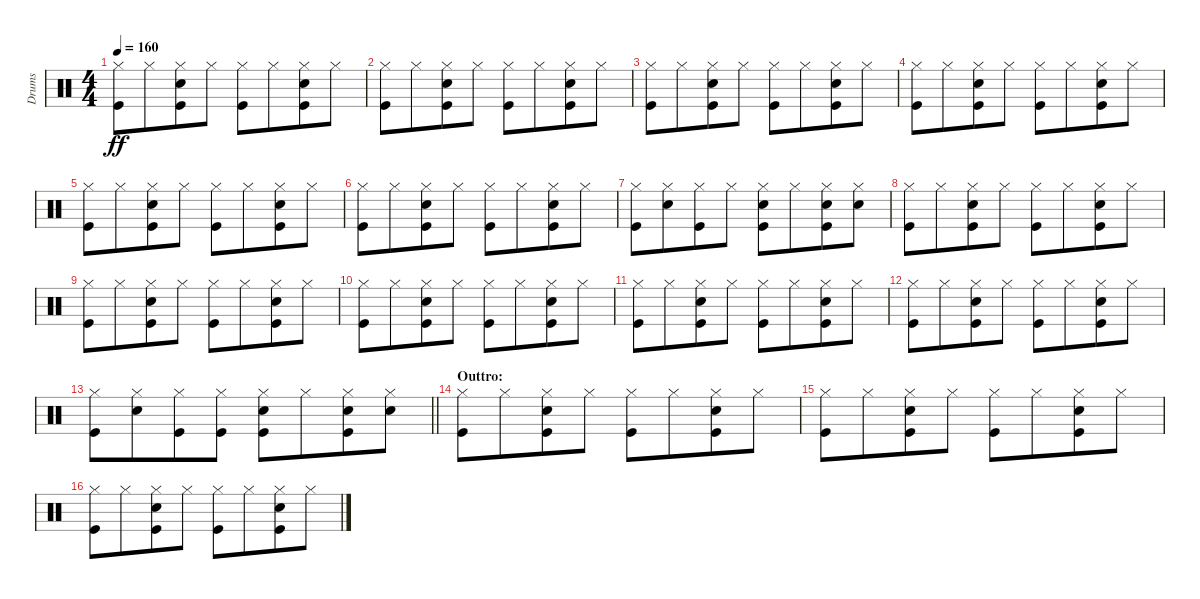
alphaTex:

\track ("Drums" "Drums") {instrument percussion}
\staff {score}
\articulation defaults
\ts (4 4)
\tempo 160
\clef neutral
\ks c
("Hi-Hat (closed)" "Kick (hit)").8{dy ff} "Hi-Hat (closed)".8{beam merge} ("Hi-Hat (closed)" "Snare (hit) 2" "Kick (hit)").8 "Hi-Hat (closed)".8 ("Hi-Hat (closed)" "Kick (hit)").8 "Hi-Hat (closed)".8{beam merge} ("Hi-Hat (closed)" "Snare (hit) 2" "Kick (hit)").8 "Hi-Hat (closed)".8 |
("Hi-Hat (closed)" "Kick (hit)").8 "Hi-Hat (closed)".8{beam merge} ("Hi-Hat (closed)" "Snare (hit) 2" "Kick (hit)").8 "Hi-Hat (closed)".8 ("Hi-Hat (closed)" "Kick (hit)").8 "Hi-Hat (closed)".8{beam merge} ("Hi-Hat (closed)" "Snare (hit) 2" "Kick (hit)").8 "Hi-Hat (closed)".8 |
("Hi-Hat (closed)" "Kick (hit)").8 "Hi-Hat (closed)".8{beam merge} ("Hi-Hat (closed)" "Snare (hit) 2" "Kick (hit)").8 "Hi-Hat (closed)".8 ("Hi-Hat (closed)" "Kick (hit)").8 "Hi-Hat (closed)".8{beam merge} ("Hi-Hat (closed)" "Snare (hit) 2" "Kick (hit)").8 "Hi-Hat (closed)".8 |
("Hi-Hat (closed)" "Kick (hit)").8 "Hi-Hat (closed)".8{beam merge} ("Hi-Hat (closed)" "Snare (hit) 2" "Kick (hit)").8 "Hi-Hat (closed)".8 ("Hi-Hat (closed)" "Kick (hit)").8 "Hi-Hat (closed)".8{beam merge} ("Hi-Hat (closed)" "Snare (hit) 2" "Kick (hit)").8 "Hi-Hat (closed)".8 |
("Hi-Hat (closed)" "Kick (hit)").8 "Hi-Hat (closed)".8{beam merge} ("Hi-Hat (closed)" "Snare (hit) 2" "Kick (hit)").8 "Hi-Hat (closed)".8 ("Hi-Hat (closed)" "Kick (hit)").8 "Hi-Hat (closed)".8{beam merge} ("Hi-Hat (closed)" "Snare (hit) 2" "Kick (hit)").8 "Hi-Hat (closed)".8 |
("Hi-Hat (closed)" "Kick (hit)").8 "Hi-Hat (closed)".8{beam merge} ("Hi-Hat (closed)" "Snare (hit) 2" "Kick (hit)").8 "Hi-Hat (closed)".8 ("Hi-Hat (closed)" "Kick (hit)").8 "Hi-Hat (closed)".8{beam merge} ("Hi-Hat (closed)" "Snare (hit) 2" "Kick (hit)").8 "Hi-Hat (closed)".8 |
("Hi-Hat (closed)" "Kick (hit)").8 ("Hi-Hat (closed)" "Snare (hit) 2").8{beam merge} ("Hi-Hat (closed)" "Kick (hit)").8 "Hi-Hat (closed)".8 ("Hi-Hat (closed)" "Snare (hit) 2" "Kick (hit)").8 "Hi-Hat (closed)".8{beam merge} ("Hi-Hat (closed)" "Snare (hit) 2" "Kick (hit)").8 ("Hi-Hat (closed)" "Snare (hit) 2").8 |
("Hi-Hat (closed)" "Kick (hit)").8 "Hi-Hat (closed)".8{beam merge} ("Hi-Hat (closed)" "Snare (hit) 2" "Kick (hit)").8 "Hi-Hat (closed)".8 ("Hi-Hat (closed)" "Kick (hit)").8 "Hi-Hat (closed)".8{beam merge} ("Hi-Hat (closed)" "Snare (hit) 2" "Kick (hit)").8 "Hi-Hat (closed)".8 |
("Hi-Hat (closed)" "Kick (hit)").8 "Hi-Hat (closed)".8{beam merge} ("Hi-Hat (closed)" "Snare (hit) 2" "Kick (hit)").8 "Hi-Hat (closed)".8 ("Hi-Hat (closed)" "Kick (hit)").8 "Hi-Hat (closed)".8{beam merge} ("Hi-Hat (closed)" "Snare (hit) 2" "Kick (hit)").8 "Hi-Hat (closed)".8 |
("Hi-Hat (closed)" "Kick (hit)").8 "Hi-Hat (closed)".8{beam merge} ("Hi-Hat (closed)" "Snare (hit) 2" "Kick (hit)").8 "Hi-Hat (closed)".8 ("Hi-Hat (closed)" "Kick (hit)").8 "Hi-Hat (closed)".8{beam merge} ("Hi-Hat (closed)" "Snare (hit) 2" "Kick (hit)").8 "Hi-Hat (closed)".8 |
("Hi-Hat (closed)" "Kick (hit)").8 "Hi-Hat (closed)".8{beam merge} ("Hi-Hat (closed)" "Snare (hit) 2" "Kick (hit)").8 "Hi-Hat (closed)".8 ("Hi-Hat (closed)" "Kick (hit)").8 "Hi-Hat (closed)".8{beam merge} ("Hi-Hat (closed)" "Snare (hit) 2" "Kick (hit)").8 "Hi-Hat (closed)".8 |
("Hi-Hat (closed)" "Kick (hit)").8 "Hi-Hat (closed)".8{beam merge} ("Hi-Hat (closed)" "Snare (hit) 2" "Kick (hit)").8 "Hi-Hat (closed)".8 ("Hi-Hat (closed)" "Kick (hit)").8 "Hi-Hat (closed)".8{beam merge} ("Hi-Hat (closed)" "Snare (hit) 2" "Kick (hit)").8 "Hi-Hat (closed)".8 |
\barLineRight lightlight
("Hi-Hat (closed)" "Kick (hit)").8 ("Hi-Hat (closed)" "Snare (hit) 2").8{beam merge} ("Hi-Hat (closed)" "Kick (hit)").8 ("Hi-Hat (closed)" "Kick (hit)").8 ("Hi-Hat (closed)" "Snare (hit) 2" "Kick (hit)").8 "Hi-Hat (closed)".8{beam merge} ("Hi-Hat (closed)" "Snare (hit) 2" "Kick (hit)").8 ("Hi-Hat (closed)" "Snare (hit) 2").8 |
\section ("" "Outtro:")
("Hi-Hat (closed)" "Kick (hit)").8 "Hi-Hat (closed)".8{beam merge} ("Hi-Hat (closed)" "Snare (hit) 2" "Kick (hit)").8 "Hi-Hat (closed)".8 ("Hi-Hat (closed)" "Kick (hit)").8 "Hi-Hat (closed)".8{beam merge} ("Hi-Hat (closed)" "Snare (hit) 2" "Kick (hit)").8 "Hi-Hat (closed)".8 |
("Hi-Hat (closed)" "Kick (hit)").8 "Hi-Hat (closed)".8{beam merge} ("Hi-Hat (closed)" "Snare (hit) 2" "Kick (hit)").8 "Hi-Hat (closed)".8 ("Hi-Hat (closed)" "Kick (hit)").8 "Hi-Hat (closed)".8{beam merge} ("Hi-Hat (closed)" "Snare (hit) 2" "Kick (hit)").8 "Hi-Hat (closed)".8 |
("Hi-Hat (closed)" "Kick (hit)").8 "Hi-Hat (closed)".8{beam merge} ("Hi-Hat (closed)" "Snare (hit) 2" "Kick (hit)").8 "Hi-Hat (closed)".8 ("Hi-Hat (closed)" "Kick (hit)").8 "Hi-Hat (closed)".8{beam merge} ("Hi-Hat (closed)" "Snare (hit) 2" "Kick (hit)").8 "Hi-Hat (closed)".8
